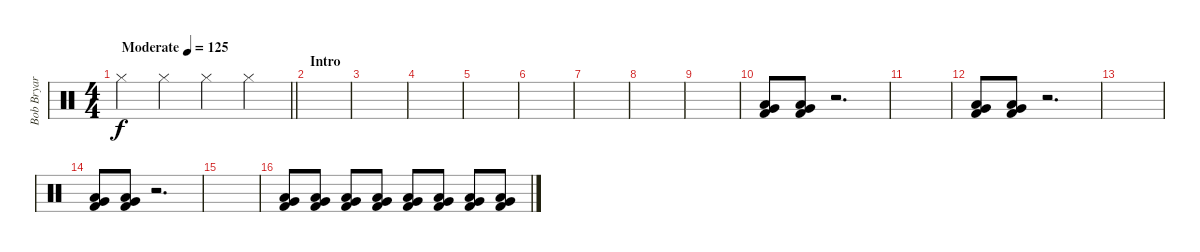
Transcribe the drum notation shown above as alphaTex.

\track ("Bob Bryar" "Bob Bryar") {instrument percussion}
\staff {score}
\articulation defaults
\ts (4 4)
\tempo (125 "Moderate")
\clef neutral
\barLineRight lightlight
\ks c "Hi-Hat (closed)".4{dy f} "Hi-Hat (closed)".4 "Hi-Hat (closed)".4 "Hi-Hat (closed)".4
|
\section ("" "Intro")
|
|
|
|
|
|
|
|
("Very Low Tom (hit)" "Low Floor Tom (hit)" "Kick (hit) 2").8 ("Very Low Tom (hit)" "Low Floor Tom (hit)" "Kick (hit) 2").8 r.2{d} |
|
("Very Low Tom (hit)" "Low Floor Tom (hit)" "Kick (hit) 2").8 ("Very Low Tom (hit)" "Low Floor Tom (hit)" "Kick (hit) 2").8 r.2{d} |
|
("Very Low Tom (hit)" "Low Floor Tom (hit)" "Kick (hit) 2").8 ("Very Low Tom (hit)" "Low Floor Tom (hit)" "Kick (hit) 2").8 r.2{d} |
|
("Very Low Tom (hit)" "Low Floor Tom (hit)" "Kick (hit) 2").8{volume 13} ("Very Low Tom (hit)" "Low Floor Tom (hit)" "Kick (hit) 2").8 ("Very Low Tom (hit)" "Low Floor Tom (hit)" "Kick (hit) 2").8 ("Very Low Tom (hit)" "Low Floor Tom (hit)" "Kick (hit) 2").8 ("Very Low Tom (hit)" "Low Floor Tom (hit)" "Kick (hit) 2").8 ("Very Low Tom (hit)" "Low Floor Tom (hit)" "Kick (hit) 2").8 ("Very Low Tom (hit)" "Low Floor Tom (hit)" "Kick (hit) 2").8 ("Very Low Tom (hit)" "Low Floor Tom (hit)" "Kick (hit) 2").8
